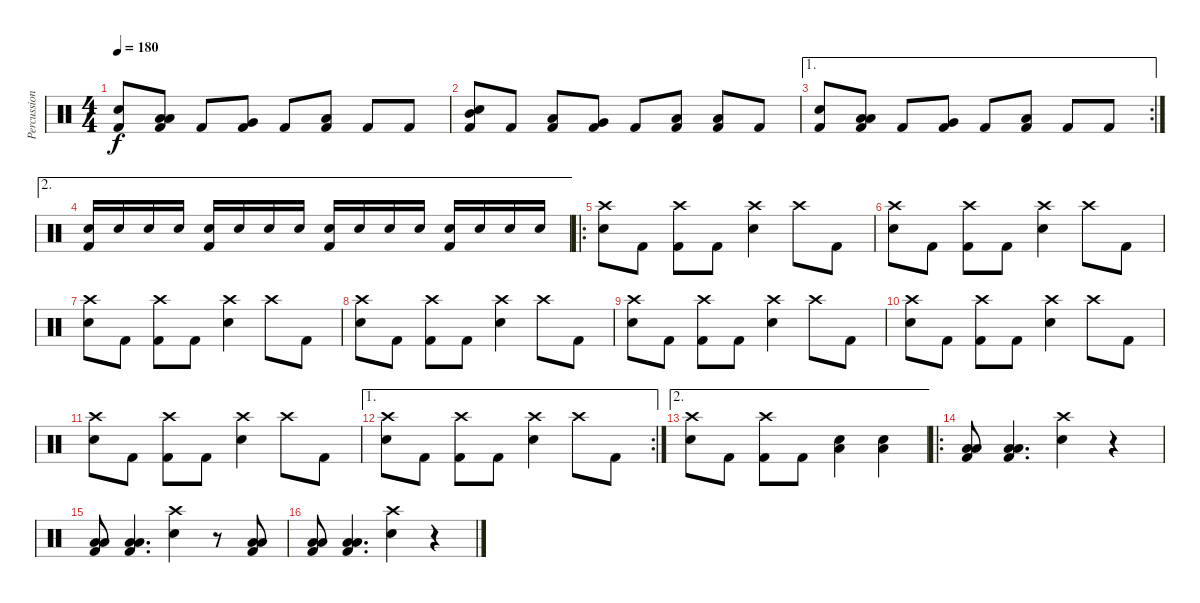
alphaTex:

\track ("Percussions" "Percussion") {instrument percussion}
\staff {score}
\articulation defaults
\ts (4 4)
\tempo 180
\clef neutral
\ks c
("Snare (hit) 2" "Kick (hit) 2").8{dy f} ("Low Tom (hit)" "Low Tom (hit)" "Kick (hit) 2").8 "Kick (hit) 2".8 ("Very Low Tom (hit)" "Kick (hit) 2").8 "Kick (hit) 2".8 ("Low Floor Tom (hit)" "Kick (hit) 2").8 "Kick (hit) 2".8 "Kick (hit) 2".8 |
("Mid Tom (hit)" "Snare (hit) 2" "Kick (hit) 2").8 "Kick (hit) 2".8 ("Low Floor Tom (hit)" "Kick (hit) 2").8 ("Very Low Tom (hit)" "Kick (hit) 2").8 "Kick (hit) 2".8 ("Low Tom (hit)" "Kick (hit) 2").8 ("Low Tom (hit)" "Kick (hit) 2").8 "Kick (hit) 2".8 |
\ae 1
\rc 2
("Snare (hit) 2" "Kick (hit) 2").8 ("Low Tom (hit)" "Low Tom (hit)" "Kick (hit) 2").8 "Kick (hit) 2".8 ("Very Low Tom (hit)" "Kick (hit) 2").8 "Kick (hit) 2".8 ("Low Floor Tom (hit)" "Kick (hit) 2").8 "Kick (hit) 2".8 "Kick (hit) 2".8 |
\ae 2
("Snare (hit) 2" "Kick (hit) 2").16 "Snare (hit) 2".16 "Snare (hit) 2".16 "Snare (hit) 2".16 ("Snare (hit) 2" "Kick (hit) 2").16 "Snare (hit) 2".16 "Snare (hit) 2".16 "Snare (hit) 2".16 ("Snare (hit) 2" "Kick (hit) 2").16 "Snare (hit) 2".16 "Snare (hit) 2".16 "Snare (hit) 2".16 ("Snare (hit) 2" "Kick (hit) 2").16 "Snare (hit) 2".16 "Snare (hit) 2".16 "Snare (hit) 2".16 |
\ro
("Crash high (hit)" "Snare (hit) 2").8 "Kick (hit) 2".8 ("Crash high (hit)" "Kick (hit) 2").8 "Kick (hit) 2".8 ("Crash high (hit)" "Snare (hit) 2").4 "Crash high (hit)".8 "Kick (hit) 2".8 |
("Crash high (hit)" "Snare (hit) 2").8 "Kick (hit) 2".8 ("Crash high (hit)" "Kick (hit) 2").8 "Kick (hit) 2".8 ("Crash high (hit)" "Snare (hit) 2").4 "Crash high (hit)".8 "Kick (hit) 2".8 |
("Crash high (hit)" "Snare (hit) 2").8 "Kick (hit) 2".8 ("Crash high (hit)" "Kick (hit) 2").8 "Kick (hit) 2".8 ("Crash high (hit)" "Snare (hit) 2").4 "Crash high (hit)".8 "Kick (hit) 2".8 |
("Crash high (hit)" "Snare (hit) 2").8 "Kick (hit) 2".8 ("Crash high (hit)" "Kick (hit) 2").8 "Kick (hit) 2".8 ("Crash high (hit)" "Snare (hit) 2").4 "Crash high (hit)".8 "Kick (hit) 2".8 |
("Crash high (hit)" "Snare (hit) 2").8 "Kick (hit) 2".8 ("Crash high (hit)" "Kick (hit) 2").8 "Kick (hit) 2".8 ("Crash high (hit)" "Snare (hit) 2").4 "Crash high (hit)".8 "Kick (hit) 2".8 |
("Crash high (hit)" "Snare (hit) 2").8 "Kick (hit) 2".8 ("Crash high (hit)" "Kick (hit) 2").8 "Kick (hit) 2".8 ("Crash high (hit)" "Snare (hit) 2").4 "Crash high (hit)".8 "Kick (hit) 2".8 |
("Crash high (hit)" "Snare (hit) 2").8 "Kick (hit) 2".8 ("Crash high (hit)" "Kick (hit) 2").8 "Kick (hit) 2".8 ("Crash high (hit)" "Snare (hit) 2").4 "Crash high (hit)".8 "Kick (hit) 2".8 |
\ae 1
\rc 2
("Crash high (hit)" "Snare (hit) 2").8 "Kick (hit) 2".8 ("Crash high (hit)" "Kick (hit) 2").8 "Kick (hit) 2".8 ("Crash high (hit)" "Snare (hit) 2").4 "Crash high (hit)".8 "Kick (hit) 2".8 |
\ae 2
("Crash high (hit)" "Snare (hit) 2").8 "Kick (hit) 2".8 ("Crash high (hit)" "Kick (hit) 2").8 "Kick (hit) 2".8 ("Low Floor Tom (hit)" "Snare (hit) 2").4 ("Low Floor Tom (hit)" "Snare (hit) 2").4 |
\ro
("Low Floor Tom (hit)" "Low Floor Tom (hit)" "Kick (hit) 2").8 ("Low Floor Tom (hit)" "Low Floor Tom (hit)" "Kick (hit) 2").4{d} ("Crash high (hit)" "Snare (hit) 2").4 r.4 |
("Low Floor Tom (hit)" "Low Floor Tom (hit)" "Kick (hit) 2").8 ("Low Floor Tom (hit)" "Low Floor Tom (hit)" "Kick (hit) 2").4{d} ("Crash high (hit)" "Snare (hit) 2").4 r.8 ("Low Floor Tom (hit)" "Low Floor Tom (hit)" "Kick (hit) 2").8 |
("Low Floor Tom (hit)" "Low Floor Tom (hit)" "Kick (hit) 2").8 ("Low Floor Tom (hit)" "Low Floor Tom (hit)" "Kick (hit) 2").4{d} ("Crash high (hit)" "Snare (hit) 2").4 r.4
